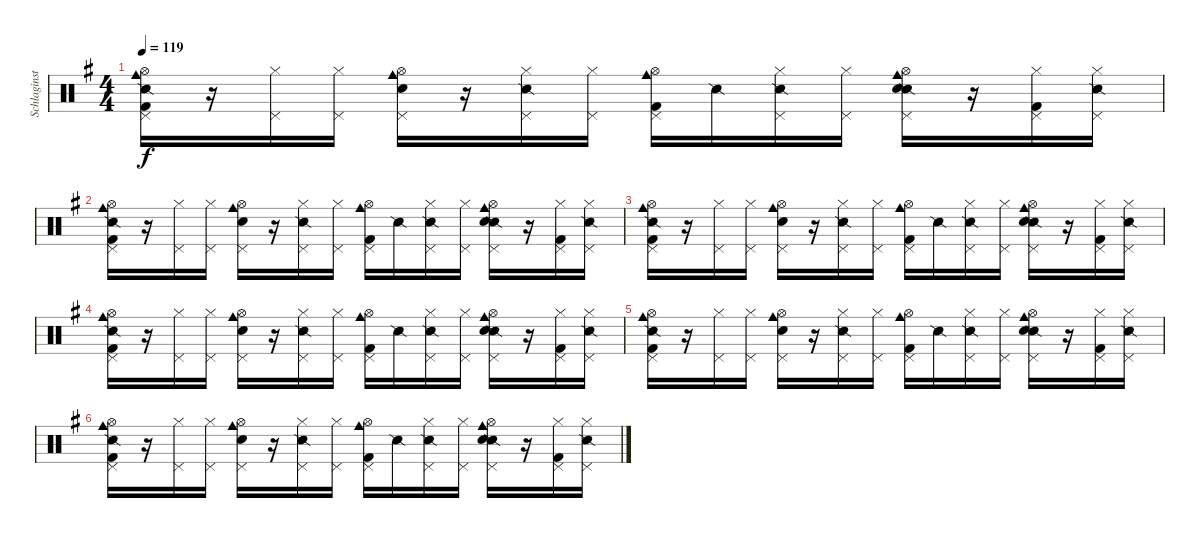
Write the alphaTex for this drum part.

\track ("Schlaginstrumente - Auswahl" "Schlaginst") {instrument percussion}
\staff {score}
\articulation defaults
\ts (4 4)
\tempo 119
\clef neutral
\ks g
("Pedal Hi-Hat (hit)" "Hi-Hat (open)" "Cowbell medium (hit)" "Snare (side stick) 2" "Kick (hit) 2").16{dy f} r.16 ("Pedal Hi-Hat (hit)" "Hi-Hat (closed)").16 ("Pedal Hi-Hat (hit)" "Hi-Hat (closed)").16 ("Pedal Hi-Hat (hit)" "Hi-Hat (open)" "Cowbell medium (hit)" "Snare (hit) 2").16 r.16 ("Pedal Hi-Hat (hit)" "Hi-Hat (closed)" "Snare (side stick) 2").16 ("Pedal Hi-Hat (hit)" "Hi-Hat (closed)").16 ("Pedal Hi-Hat (hit)" "Hi-Hat (open)" "Cowbell medium (hit)" "Kick (hit) 2").16 "Snare (side stick) 2".16 ("Pedal Hi-Hat (hit)" "Hi-Hat (closed)" "Snare (side stick) 2").16 ("Pedal Hi-Hat (hit)" "Hi-Hat (closed)").16 ("Pedal Hi-Hat (hit)" "Hi-Hat (open)" "Cowbell medium (hit)" "Snare (side stick) 2" "Snare (hit) 2").16 r.16 ("Pedal Hi-Hat (hit)" "Hi-Hat (closed)" "Kick (hit) 2").16 ("Pedal Hi-Hat (hit)" "Hi-Hat (closed)" "Snare (side stick) 2").16 |
("Pedal Hi-Hat (hit)" "Hi-Hat (open)" "Cowbell medium (hit)" "Snare (side stick) 2" "Kick (hit) 2").16 r.16 ("Pedal Hi-Hat (hit)" "Hi-Hat (closed)").16 ("Pedal Hi-Hat (hit)" "Hi-Hat (closed)").16 ("Pedal Hi-Hat (hit)" "Hi-Hat (open)" "Cowbell medium (hit)" "Snare (hit) 2").16 r.16 ("Pedal Hi-Hat (hit)" "Hi-Hat (closed)" "Snare (side stick) 2").16 ("Pedal Hi-Hat (hit)" "Hi-Hat (closed)").16 ("Pedal Hi-Hat (hit)" "Hi-Hat (open)" "Cowbell medium (hit)" "Kick (hit) 2").16 "Snare (side stick) 2".16 ("Pedal Hi-Hat (hit)" "Hi-Hat (closed)" "Snare (side stick) 2").16 ("Pedal Hi-Hat (hit)" "Hi-Hat (closed)").16 ("Pedal Hi-Hat (hit)" "Hi-Hat (open)" "Cowbell medium (hit)" "Snare (side stick) 2" "Snare (hit) 2").16 r.16 ("Pedal Hi-Hat (hit)" "Hi-Hat (closed)" "Kick (hit) 2").16 ("Pedal Hi-Hat (hit)" "Hi-Hat (closed)" "Snare (side stick) 2").16 |
("Pedal Hi-Hat (hit)" "Hi-Hat (open)" "Cowbell medium (hit)" "Snare (side stick) 2" "Kick (hit) 2").16 r.16 ("Pedal Hi-Hat (hit)" "Hi-Hat (closed)").16 ("Pedal Hi-Hat (hit)" "Hi-Hat (closed)").16 ("Pedal Hi-Hat (hit)" "Hi-Hat (open)" "Cowbell medium (hit)" "Snare (hit) 2").16 r.16 ("Pedal Hi-Hat (hit)" "Hi-Hat (closed)" "Snare (side stick) 2").16 ("Pedal Hi-Hat (hit)" "Hi-Hat (closed)").16 ("Pedal Hi-Hat (hit)" "Hi-Hat (open)" "Cowbell medium (hit)" "Kick (hit) 2").16 "Snare (side stick) 2".16 ("Pedal Hi-Hat (hit)" "Hi-Hat (closed)" "Snare (side stick) 2").16 ("Pedal Hi-Hat (hit)" "Hi-Hat (closed)").16 ("Pedal Hi-Hat (hit)" "Hi-Hat (open)" "Cowbell medium (hit)" "Snare (side stick) 2" "Snare (hit) 2").16 r.16 ("Pedal Hi-Hat (hit)" "Hi-Hat (closed)" "Kick (hit) 2").16 ("Pedal Hi-Hat (hit)" "Hi-Hat (closed)" "Snare (side stick) 2").16 |
("Pedal Hi-Hat (hit)" "Hi-Hat (open)" "Cowbell medium (hit)" "Snare (side stick) 2" "Kick (hit) 2").16 r.16 ("Pedal Hi-Hat (hit)" "Hi-Hat (closed)").16 ("Pedal Hi-Hat (hit)" "Hi-Hat (closed)").16 ("Pedal Hi-Hat (hit)" "Hi-Hat (open)" "Cowbell medium (hit)" "Snare (hit) 2").16 r.16 ("Pedal Hi-Hat (hit)" "Hi-Hat (closed)" "Snare (side stick) 2").16 ("Pedal Hi-Hat (hit)" "Hi-Hat (closed)").16 ("Pedal Hi-Hat (hit)" "Hi-Hat (open)" "Cowbell medium (hit)" "Kick (hit) 2").16 "Snare (side stick) 2".16 ("Pedal Hi-Hat (hit)" "Hi-Hat (closed)" "Snare (side stick) 2").16 ("Pedal Hi-Hat (hit)" "Hi-Hat (closed)").16 ("Pedal Hi-Hat (hit)" "Hi-Hat (open)" "Cowbell medium (hit)" "Snare (side stick) 2" "Snare (hit) 2").16 r.16 ("Pedal Hi-Hat (hit)" "Hi-Hat (closed)" "Kick (hit) 2").16 ("Pedal Hi-Hat (hit)" "Hi-Hat (closed)" "Snare (side stick) 2").16 |
("Pedal Hi-Hat (hit)" "Hi-Hat (open)" "Cowbell medium (hit)" "Snare (side stick) 2" "Kick (hit) 2").16 r.16 ("Pedal Hi-Hat (hit)" "Hi-Hat (closed)").16 ("Pedal Hi-Hat (hit)" "Hi-Hat (closed)").16 ("Pedal Hi-Hat (hit)" "Hi-Hat (open)" "Cowbell medium (hit)" "Snare (hit) 2").16 r.16 ("Pedal Hi-Hat (hit)" "Hi-Hat (closed)" "Snare (side stick) 2").16 ("Pedal Hi-Hat (hit)" "Hi-Hat (closed)").16 ("Pedal Hi-Hat (hit)" "Hi-Hat (open)" "Cowbell medium (hit)" "Kick (hit) 2").16 "Snare (side stick) 2".16 ("Pedal Hi-Hat (hit)" "Hi-Hat (closed)" "Snare (side stick) 2").16 ("Pedal Hi-Hat (hit)" "Hi-Hat (closed)").16 ("Pedal Hi-Hat (hit)" "Hi-Hat (open)" "Cowbell medium (hit)" "Snare (side stick) 2" "Snare (hit) 2").16 r.16 ("Pedal Hi-Hat (hit)" "Hi-Hat (closed)" "Kick (hit) 2").16 ("Pedal Hi-Hat (hit)" "Hi-Hat (closed)" "Snare (side stick) 2").16 |
("Pedal Hi-Hat (hit)" "Hi-Hat (open)" "Cowbell medium (hit)" "Snare (side stick) 2" "Kick (hit) 2").16 r.16 ("Pedal Hi-Hat (hit)" "Hi-Hat (closed)").16 ("Pedal Hi-Hat (hit)" "Hi-Hat (closed)").16 ("Pedal Hi-Hat (hit)" "Hi-Hat (open)" "Cowbell medium (hit)" "Snare (hit) 2").16 r.16 ("Pedal Hi-Hat (hit)" "Hi-Hat (closed)" "Snare (side stick) 2").16 ("Pedal Hi-Hat (hit)" "Hi-Hat (closed)").16 ("Pedal Hi-Hat (hit)" "Hi-Hat (open)" "Cowbell medium (hit)" "Kick (hit) 2").16 "Snare (side stick) 2".16 ("Pedal Hi-Hat (hit)" "Hi-Hat (closed)" "Snare (side stick) 2").16 ("Pedal Hi-Hat (hit)" "Hi-Hat (closed)").16 ("Pedal Hi-Hat (hit)" "Hi-Hat (open)" "Cowbell medium (hit)" "Snare (side stick) 2" "Snare (hit) 2").16 r.16 ("Pedal Hi-Hat (hit)" "Hi-Hat (closed)" "Kick (hit) 2").16 ("Pedal Hi-Hat (hit)" "Hi-Hat (closed)" "Snare (side stick) 2").16
